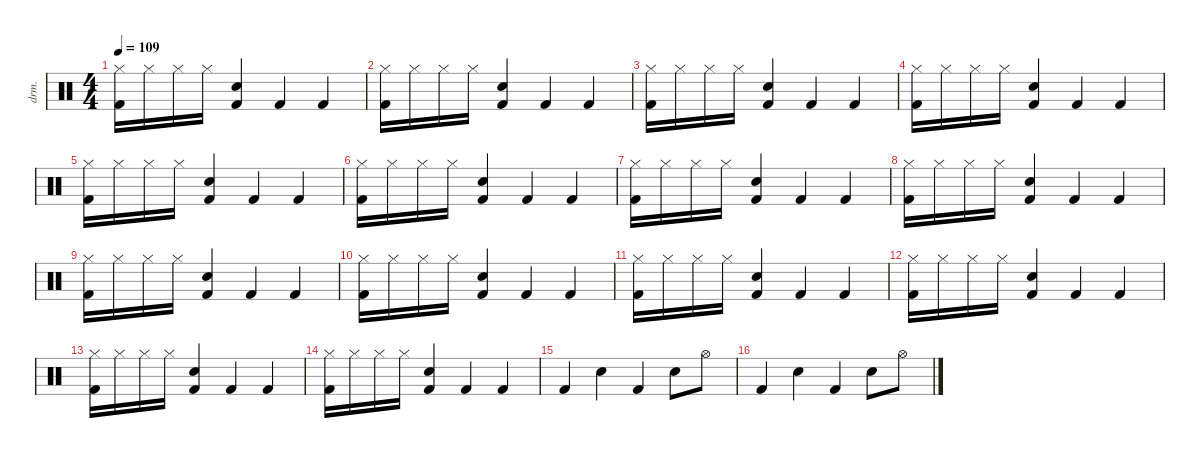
\defaultSystemsLayout 4
\hideDynamics
\bracketExtendMode nobrackets
\otherSystemsTrackNameOrientation horizontal
\track ("Drums" "drm.") {instrument percussion}
\staff {score}
\articulation defaults
\ts (4 4)
\tempo 109
\clef neutral
\ks c
("Hi-Hat (closed)" "Kick (hit) 2").16{dy f} "Hi-Hat (closed)".16 "Hi-Hat (closed)".16 "Hi-Hat (closed)".16 ("Snare (hit) 2" "Kick (hit) 2").4 "Kick (hit) 2".4 "Kick (hit) 2".4 |
("Hi-Hat (closed)" "Kick (hit) 2").16 "Hi-Hat (closed)".16 "Hi-Hat (closed)".16 "Hi-Hat (closed)".16 ("Snare (hit) 2" "Kick (hit) 2").4 "Kick (hit) 2".4 "Kick (hit) 2".4 |
("Hi-Hat (closed)" "Kick (hit) 2").16 "Hi-Hat (closed)".16 "Hi-Hat (closed)".16 "Hi-Hat (closed)".16 ("Snare (hit) 2" "Kick (hit) 2").4 "Kick (hit) 2".4 "Kick (hit) 2".4 |
("Hi-Hat (closed)" "Kick (hit) 2").16 "Hi-Hat (closed)".16 "Hi-Hat (closed)".16 "Hi-Hat (closed)".16 ("Snare (hit) 2" "Kick (hit) 2").4 "Kick (hit) 2".4 "Kick (hit) 2".4 |
("Hi-Hat (closed)" "Kick (hit) 2").16 "Hi-Hat (closed)".16 "Hi-Hat (closed)".16 "Hi-Hat (closed)".16 ("Snare (hit) 2" "Kick (hit) 2").4 "Kick (hit) 2".4 "Kick (hit) 2".4 |
("Hi-Hat (closed)" "Kick (hit) 2").16 "Hi-Hat (closed)".16 "Hi-Hat (closed)".16 "Hi-Hat (closed)".16 ("Snare (hit) 2" "Kick (hit) 2").4 "Kick (hit) 2".4 "Kick (hit) 2".4 |
("Hi-Hat (closed)" "Kick (hit) 2").16 "Hi-Hat (closed)".16 "Hi-Hat (closed)".16 "Hi-Hat (closed)".16 ("Snare (hit) 2" "Kick (hit) 2").4 "Kick (hit) 2".4 "Kick (hit) 2".4 |
("Hi-Hat (closed)" "Kick (hit) 2").16 "Hi-Hat (closed)".16 "Hi-Hat (closed)".16 "Hi-Hat (closed)".16 ("Snare (hit) 2" "Kick (hit) 2").4 "Kick (hit) 2".4 "Kick (hit) 2".4 |
("Hi-Hat (closed)" "Kick (hit) 2").16 "Hi-Hat (closed)".16 "Hi-Hat (closed)".16 "Hi-Hat (closed)".16 ("Snare (hit) 2" "Kick (hit) 2").4 "Kick (hit) 2".4 "Kick (hit) 2".4 |
("Hi-Hat (closed)" "Kick (hit) 2").16 "Hi-Hat (closed)".16 "Hi-Hat (closed)".16 "Hi-Hat (closed)".16 ("Snare (hit) 2" "Kick (hit) 2").4 "Kick (hit) 2".4 "Kick (hit) 2".4 |
("Hi-Hat (closed)" "Kick (hit) 2").16 "Hi-Hat (closed)".16 "Hi-Hat (closed)".16 "Hi-Hat (closed)".16 ("Snare (hit) 2" "Kick (hit) 2").4 "Kick (hit) 2".4 "Kick (hit) 2".4 |
("Hi-Hat (closed)" "Kick (hit) 2").16 "Hi-Hat (closed)".16 "Hi-Hat (closed)".16 "Hi-Hat (closed)".16 ("Snare (hit) 2" "Kick (hit) 2").4 "Kick (hit) 2".4 "Kick (hit) 2".4 |
("Hi-Hat (closed)" "Kick (hit) 2").16 "Hi-Hat (closed)".16 "Hi-Hat (closed)".16 "Hi-Hat (closed)".16 ("Snare (hit) 2" "Kick (hit) 2").4 "Kick (hit) 2".4 "Kick (hit) 2".4 |
("Hi-Hat (closed)" "Kick (hit) 2").16 "Hi-Hat (closed)".16 "Hi-Hat (closed)".16 "Hi-Hat (closed)".16 ("Snare (hit) 2" "Kick (hit) 2").4 "Kick (hit) 2".4 "Kick (hit) 2".4 |
"Kick (hit) 2".4 "Snare (hit) 2".4 "Kick (hit) 2".4 "Snare (hit) 2".8 "Hi-Hat (open)".8 |
"Kick (hit) 2".4 "Snare (hit) 2".4 "Kick (hit) 2".4 "Snare (hit) 2".8 "Hi-Hat (open)".8
